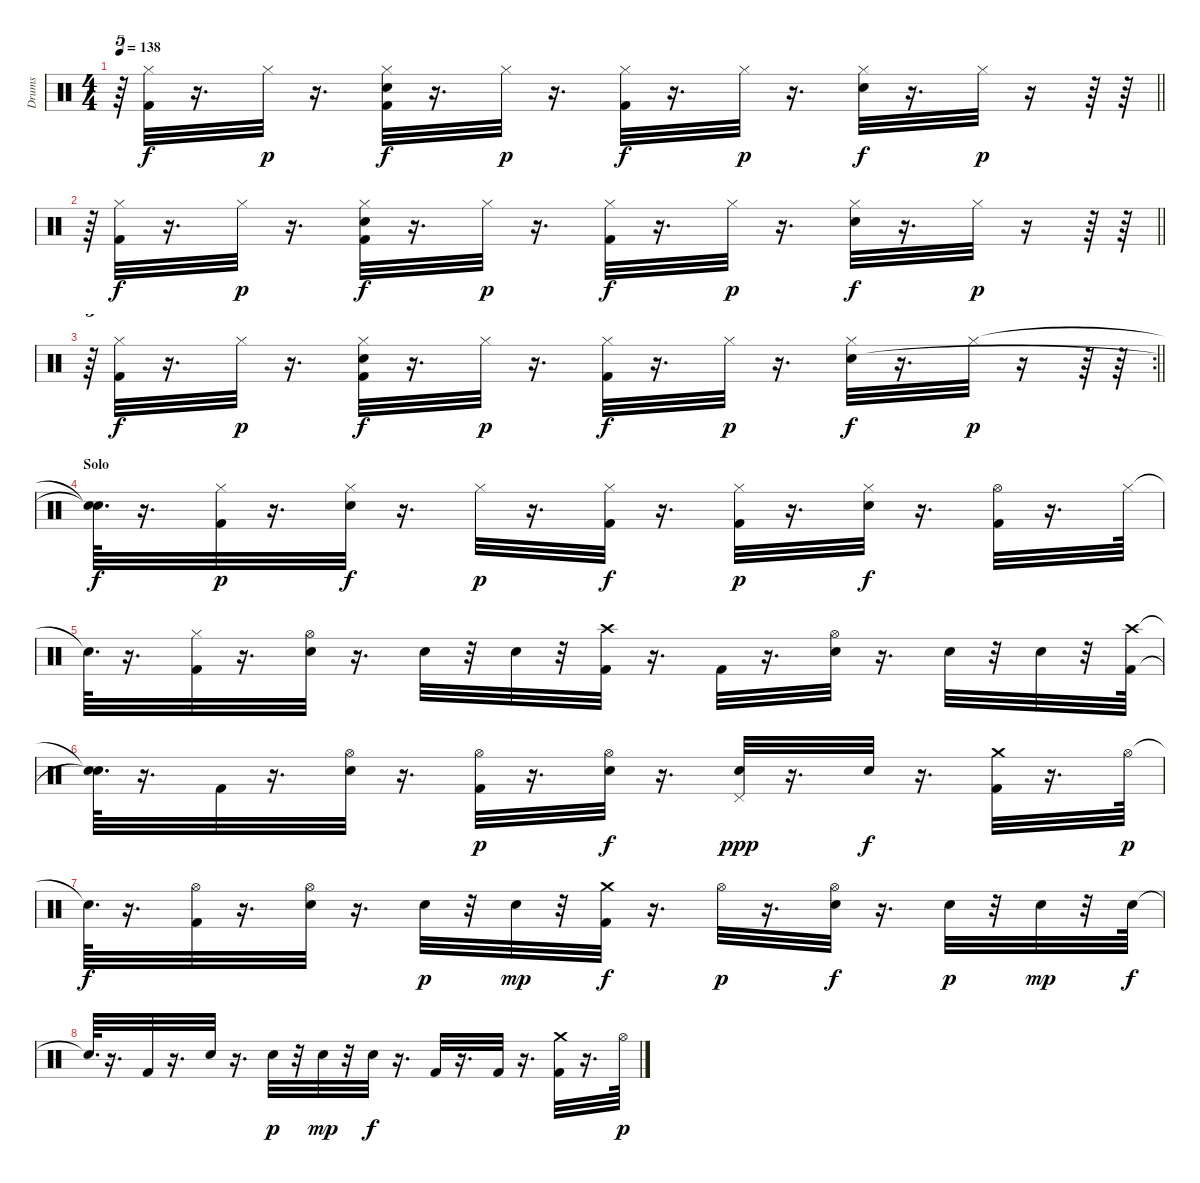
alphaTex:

\track ("Drums" "Drums") {instrument percussion}
\staff {score}
\articulation defaults
\ts (4 4)
\tempo 138
\clef neutral
\barLineRight lightlight
\ks c
r.64{tu (5 4) dy p} ("Hi-Hat (closed)" "Kick (hit) 2").32{dy f} r.16{d} "Hi-Hat (closed)".32{dy p} r.16{d} ("Kick (hit) 2" "Hi-Hat (closed)" "Electric Snare (hit)").32{dy f} r.16{d} "Hi-Hat (closed)".32{dy p} r.16{d} ("Hi-Hat (closed)" "Kick (hit) 2").32{dy f} r.16{d} "Hi-Hat (closed)".32{dy p} r.16{d} ("Hi-Hat (closed)" "Electric Snare (hit)").32{dy f} r.16{d} "Hi-Hat (closed)".32{dy p} r.16 r.64 r.64 |
\section ("" "")
\barLineRight lightlight
r.64{tu (5 4)} ("Hi-Hat (closed)" "Kick (hit) 2").32{dy f} r.16{d} "Hi-Hat (closed)".32{dy p} r.16{d} ("Kick (hit) 2" "Hi-Hat (closed)" "Electric Snare (hit)").32{dy f} r.16{d} "Hi-Hat (closed)".32{dy p} r.16{d} ("Hi-Hat (closed)" "Kick (hit) 2").32{dy f} r.16{d} "Hi-Hat (closed)".32{dy p} r.16{d} ("Hi-Hat (closed)" "Electric Snare (hit)").32{dy f} r.16{d} "Hi-Hat (closed)".32{dy p} r.16 r.64 r.64 |
\rc 2
\section ("" "")
\barLineRight lightlight
r.64{tu (5 4)} ("Hi-Hat (closed)" "Kick (hit) 2").32{dy f} r.16{d} "Hi-Hat (closed)".32{dy p} r.16{d} ("Kick (hit) 2" "Hi-Hat (closed)" "Electric Snare (hit)").32{dy f} r.16{d} "Hi-Hat (closed)".32{dy p} r.16{d} ("Hi-Hat (closed)" "Kick (hit) 2").32{dy f} r.16{d} "Hi-Hat (closed)".32{dy p} r.16{d} ("Hi-Hat (closed)" "Electric Snare (hit)").32{dy f} r.16{d} "Hi-Hat (closed)".32{dy p} r.16 r.64 r.64 |
\section ("" "Solo")
("Snare (hit)"{t} "Snare (hit)"{t}).64{d dy f} r.16{d} ("Hi-Hat (closed)" "Kick (hit) 2").32{dy p} r.16{d} ("Hi-Hat (closed)" "Electric Snare (hit)").32{dy f} r.16{d} "Hi-Hat (closed)".32{dy p} r.16{d} ("Hi-Hat (closed)" "Kick (hit) 2").32{dy f} r.16{d} ("Hi-Hat (closed)" "Kick (hit) 2").32{dy p} r.16{d} ("Hi-Hat (closed)" "Electric Snare (hit)").32{dy f} r.16{d} ("Hi-Hat (open)" "Kick (hit) 2").32 r.16{d} "Hi-Hat (closed)".64 |
"Snare (hit)"{t}.64{d} r.16{d} ("Hi-Hat (closed)" "Kick (hit) 2").32 r.16{d} ("Hi-Hat (open)" "Electric Snare (hit)").32 r.16{d} "Electric Snare (hit)".32 r.32 "Electric Snare (hit)".32 r.32 ("Crash high (hit)" "Kick (hit) 2").32 r.16{d} "Kick (hit) 2".32 r.16{d} ("Hi-Hat (open)" "Electric Snare (hit)").32 r.16{d} "Electric Snare (hit)".32 r.32 "Electric Snare (hit)".32 r.32 ("Crash high (hit)" "Kick (hit) 2").64 |
("Snare (hit)"{t} "Snare (hit)"{t}).64{d} r.16{d} "Kick (hit) 2".32 r.16{d} ("Hi-Hat (open)" "Electric Snare (hit)").32 r.16{d} ("Hi-Hat (open)" "Kick (hit) 2").32{dy p} r.16{d} ("Hi-Hat (open)" "Electric Snare (hit)").32{dy f} r.16{d} ("Electric Snare (hit)" "Pedal Hi-Hat (hit)").32{dy ppp} r.16{d} "Electric Snare (hit)".32{dy f} r.16{d} ("Crash medium (hit)" "Kick (hit) 2").32 r.16{d} "Hi-Hat (open)".64{dy p} |
"Snare (hit)"{t}.64{d dy f} r.16{d} ("Hi-Hat (open)" "Kick (hit) 2").32 r.16{d} ("Hi-Hat (open)" "Electric Snare (hit)").32 r.16{d} "Electric Snare (hit)".32{dy p} r.32 "Electric Snare (hit)".32{dy mp} r.32 ("Kick (hit) 2" "Crash medium (hit)").32{dy f} r.16{d} "Hi-Hat (open)".32{dy p} r.16{d} ("Hi-Hat (open)" "Electric Snare (hit)").32{dy f} r.16{d} "Electric Snare (hit)".32{dy p} r.32 "Electric Snare (hit)".32{dy mp} r.32 "Electric Snare (hit)".64{dy f} |
"Snare (hit)"{t}.64{d} r.16{d} "Kick (hit) 2".32 r.16{d} "Electric Snare (hit)".32 r.16{d} "Electric Snare (hit)".32{dy p} r.32 "Electric Snare (hit)".32{dy mp} r.32 "Electric Snare (hit)".32{dy f} r.16{d} "Kick (hit) 2".32 r.16{d} "Kick (hit) 2".32 r.16{d} ("Crash medium (hit)" "Kick (hit) 2").32 r.16{d} "Hi-Hat (open)".64{dy p}
